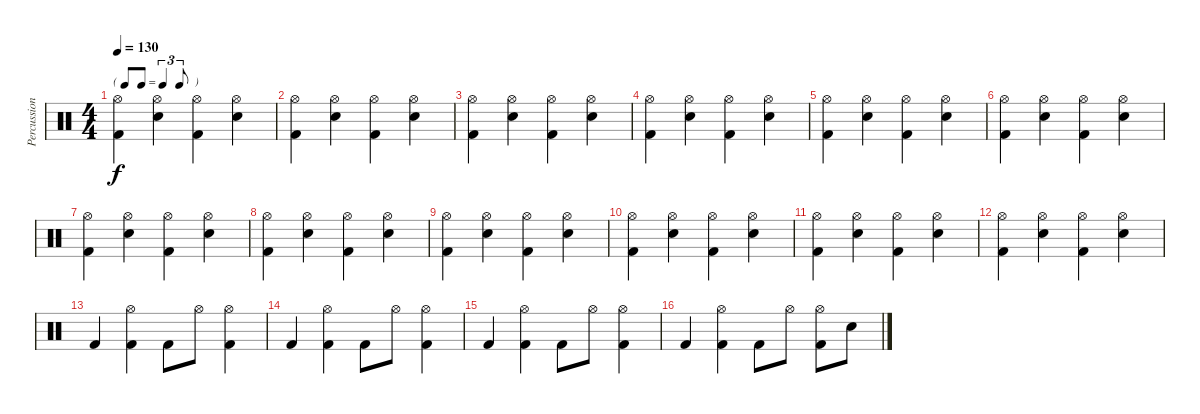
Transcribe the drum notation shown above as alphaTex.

\track ("Percussion" "Percussion") {instrument percussion}
\staff {score}
\articulation defaults
\ts (4 4)
\tf triplet8th
\tempo 130
\clef neutral
\ks c
("Hi-Hat (open)" "Kick (hit) 2").4{dy f} ("Hi-Hat (open)" "Hand Clap (hit)").4 ("Hi-Hat (open)" "Kick (hit) 2").4 ("Hi-Hat (open)" "Hand Clap (hit)").4 |
("Hi-Hat (open)" "Kick (hit) 2").4 ("Hi-Hat (open)" "Hand Clap (hit)").4 ("Hi-Hat (open)" "Kick (hit) 2").4 ("Hi-Hat (open)" "Hand Clap (hit)").4 |
("Hi-Hat (open)" "Kick (hit) 2").4 ("Hi-Hat (open)" "Hand Clap (hit)").4 ("Hi-Hat (open)" "Kick (hit) 2").4 ("Hi-Hat (open)" "Hand Clap (hit)").4 |
("Hi-Hat (open)" "Kick (hit) 2").4 ("Hi-Hat (open)" "Hand Clap (hit)").4 ("Hi-Hat (open)" "Kick (hit) 2").4 ("Hi-Hat (open)" "Hand Clap (hit)").4 |
("Hi-Hat (open)" "Kick (hit) 2").4 ("Hi-Hat (open)" "Hand Clap (hit)").4 ("Hi-Hat (open)" "Kick (hit) 2").4 ("Hi-Hat (open)" "Hand Clap (hit)").4 |
("Hi-Hat (open)" "Kick (hit) 2").4 ("Hi-Hat (open)" "Hand Clap (hit)").4 ("Hi-Hat (open)" "Kick (hit) 2").4 ("Hi-Hat (open)" "Hand Clap (hit)").4 |
("Hi-Hat (open)" "Kick (hit) 2").4 ("Hi-Hat (open)" "Hand Clap (hit)").4 ("Hi-Hat (open)" "Kick (hit) 2").4 ("Hi-Hat (open)" "Hand Clap (hit)").4 |
("Hi-Hat (open)" "Kick (hit) 2").4 ("Hi-Hat (open)" "Hand Clap (hit)").4 ("Hi-Hat (open)" "Kick (hit) 2").4 ("Hi-Hat (open)" "Hand Clap (hit)").4 |
("Hi-Hat (open)" "Kick (hit) 2").4 ("Hi-Hat (open)" "Hand Clap (hit)").4 ("Hi-Hat (open)" "Kick (hit) 2").4 ("Hi-Hat (open)" "Hand Clap (hit)").4 |
("Hi-Hat (open)" "Kick (hit) 2").4 ("Hi-Hat (open)" "Hand Clap (hit)").4 ("Hi-Hat (open)" "Kick (hit) 2").4 ("Hi-Hat (open)" "Hand Clap (hit)").4 |
("Hi-Hat (open)" "Kick (hit) 2").4 ("Hi-Hat (open)" "Hand Clap (hit)").4 ("Hi-Hat (open)" "Kick (hit) 2").4 ("Hi-Hat (open)" "Hand Clap (hit)").4 |
("Hi-Hat (open)" "Kick (hit) 2").4 ("Hi-Hat (open)" "Hand Clap (hit)").4 ("Hi-Hat (open)" "Kick (hit) 2").4 ("Hi-Hat (open)" "Hand Clap (hit)").4 |
"Kick (hit) 2".4 ("Hi-Hat (open)" "Kick (hit) 2").4 "Kick (hit) 2".8 "Hi-Hat (open)".8 ("Hi-Hat (open)" "Kick (hit) 2").4 |
"Kick (hit) 2".4 ("Hi-Hat (open)" "Kick (hit) 2").4 "Kick (hit) 2".8 "Hi-Hat (open)".8 ("Hi-Hat (open)" "Kick (hit) 2").4 |
"Kick (hit) 2".4 ("Hi-Hat (open)" "Kick (hit) 2").4 "Kick (hit) 2".8 "Hi-Hat (open)".8 ("Hi-Hat (open)" "Kick (hit) 2").4 |
"Kick (hit) 2".4 ("Hi-Hat (open)" "Kick (hit) 2").4 "Kick (hit) 2".8 "Hi-Hat (open)".8 ("Hi-Hat (open)" "Kick (hit) 2").8 "Snare (hit) 2".8
